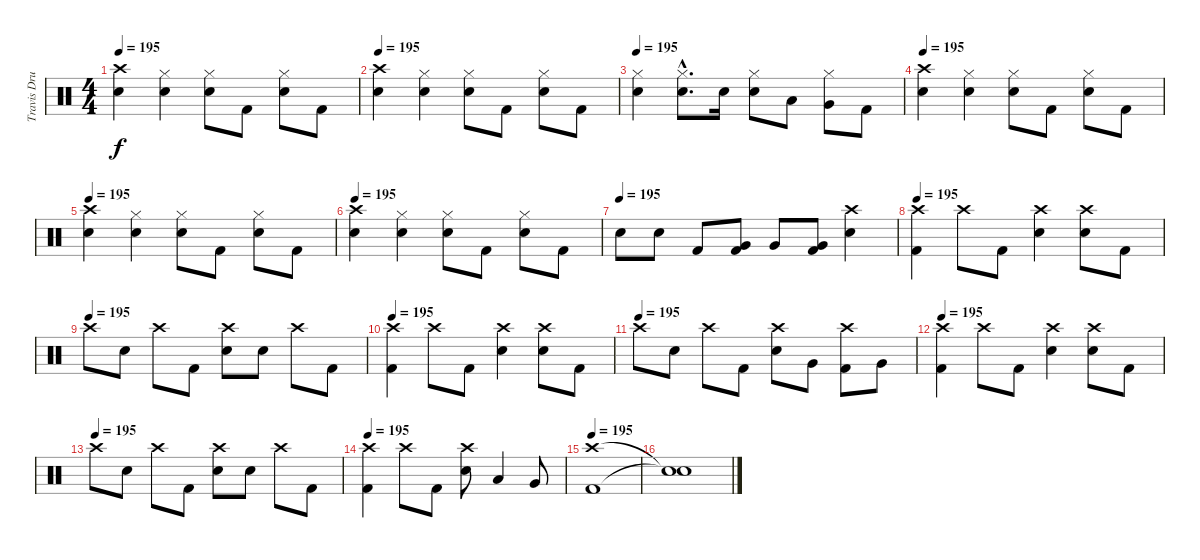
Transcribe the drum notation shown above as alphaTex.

\track ("Travis Drums" "Travis Dru") {instrument percussion}
\staff {score}
\articulation defaults
\ts (4 4)
\tempo 195
\clef neutral
\ks c
("Crash high (hit)" "Electric Snare (hit)").4{dy f} ("Hi-Hat (closed)" "Electric Snare (hit)").4 ("Hi-Hat (closed)" "Electric Snare (hit)").8 "Kick (hit) 2".8 ("Hi-Hat (closed)" "Electric Snare (hit)").8 "Kick (hit) 2".8 |
\tempo 195
("Crash high (hit)" "Electric Snare (hit)").4 ("Hi-Hat (closed)" "Electric Snare (hit)").4 ("Hi-Hat (closed)" "Electric Snare (hit)").8 "Kick (hit) 2".8 ("Hi-Hat (closed)" "Electric Snare (hit)").8 "Kick (hit) 2".8 |
\tempo 195
("Hi-Hat (closed)" "Electric Snare (hit)").4 ("Hi-Hat (closed)"{hac} "Electric Snare (hit)"{hac}).8{d} "Electric Snare (hit)".16 ("Hi-Hat (closed)" "Electric Snare (hit)").8 "Low Tom (hit)".8 ("Very Low Tom (hit)" "Hi-Hat (closed)").8 "Kick (hit) 2".8 |
\tempo 195
("Crash high (hit)" "Electric Snare (hit)").4 ("Hi-Hat (closed)" "Electric Snare (hit)").4 ("Hi-Hat (closed)" "Electric Snare (hit)").8 "Kick (hit) 2".8 ("Hi-Hat (closed)" "Electric Snare (hit)").8 "Kick (hit) 2".8 |
\tempo 195
("Crash high (hit)" "Electric Snare (hit)").4 ("Hi-Hat (closed)" "Electric Snare (hit)").4 ("Hi-Hat (closed)" "Electric Snare (hit)").8 "Kick (hit) 2".8 ("Hi-Hat (closed)" "Electric Snare (hit)").8 "Kick (hit) 2".8 |
\tempo 195
("Crash high (hit)" "Electric Snare (hit)").4 ("Hi-Hat (closed)" "Electric Snare (hit)").4 ("Hi-Hat (closed)" "Electric Snare (hit)").8 "Kick (hit) 2".8 ("Hi-Hat (closed)" "Electric Snare (hit)").8 "Kick (hit) 2".8 |
\tempo (195)
"Electric Snare (hit)".8 "Electric Snare (hit)".8 "Kick (hit) 2".8 ("Very Low Tom (hit)" "Kick (hit) 2").8 "Very Low Tom (hit)".8 ("Very Low Tom (hit)" "Kick (hit) 2").8 ("Crash high (hit)" "Electric Snare (hit)").4 |
\tempo 195
("Crash high (hit)" "Kick (hit) 2").4 "Crash high (hit)".8 "Kick (hit) 2".8 ("Crash high (hit)" "Electric Snare (hit)").4 ("Crash high (hit)" "Electric Snare (hit)").8 "Kick (hit) 2".8 |
\tempo (195)
"Crash high (hit)".8 "Electric Snare (hit)".8 "Crash high (hit)".8 "Kick (hit) 2".8 ("Crash high (hit)" "Electric Snare (hit)").8 "Electric Snare (hit)".8 "Crash high (hit)".8 "Kick (hit) 2".8 |
\tempo 195
("Crash high (hit)" "Kick (hit) 2").4 "Crash high (hit)".8 "Kick (hit) 2".8 ("Crash high (hit)" "Electric Snare (hit)").4 ("Crash high (hit)" "Electric Snare (hit)").8 "Kick (hit) 2".8 |
\tempo (195)
"Crash high (hit)".8 "Electric Snare (hit)".8 "Crash high (hit)".8 "Kick (hit) 2".8 ("Crash high (hit)" "Electric Snare (hit)").8 "Very Low Tom (hit)".8 ("Crash high (hit)" "Kick (hit) 2").8 "Very Low Tom (hit)".8 |
\tempo 195
("Crash high (hit)" "Kick (hit) 2").4 "Crash high (hit)".8 "Kick (hit) 2".8 ("Crash high (hit)" "Electric Snare (hit)").4 ("Crash high (hit)" "Electric Snare (hit)").8 "Kick (hit) 2".8 |
\tempo (195)
"Crash high (hit)".8 "Electric Snare (hit)".8 "Crash high (hit)".8 "Kick (hit) 2".8 ("Crash high (hit)" "Electric Snare (hit)").8 "Electric Snare (hit)".8 "Crash high (hit)".8 "Kick (hit) 2".8 |
\tempo 195
("Crash high (hit)" "Kick (hit) 2").4 "Crash high (hit)".8 "Kick (hit) 2".8 ("Crash high (hit)" "Electric Snare (hit)").8 "Low Tom (hit)".4 "Very Low Tom (hit)".8 |
\tempo 195
("Crash high (hit)" "Kick (hit) 2").1 |
("Snare (hit)"{t} "Snare (hit)"{t}).1
